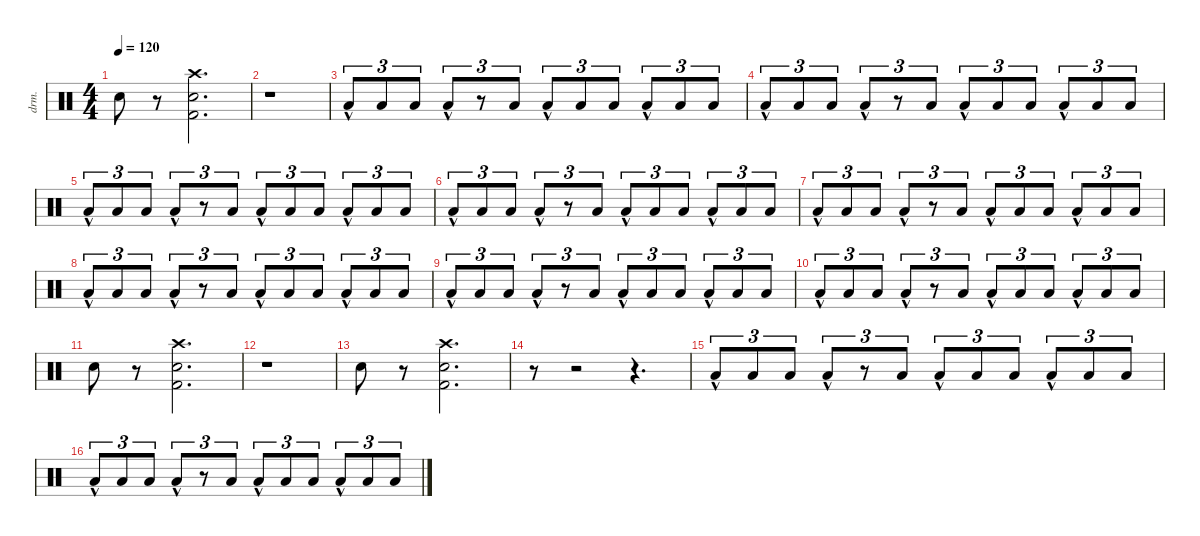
\defaultSystemsLayout 4
\hideDynamics
\bracketExtendMode nobrackets
\otherSystemsTrackNameOrientation horizontal
\track ("Percussion" "drm.") {instrument percussion}
\staff {score}
\articulation defaults
\ts (4 4)
\tempo 120
\clef neutral
\ks c "Snare (hit) 2".8{dy f beam Down}
r.8{beam Down} ("Crash high (hit)" "Snare (hit) 2" "Kick (hit) 2").2{d beam Down} |
r.1{beam Down} |
"Low Floor Tom (hit)"{hac}.8{tu (3 2) beam Up} "Low Floor Tom (hit)".8{tu (3 2) beam Up} "Low Floor Tom (hit)".8{tu (3 2) beam Up} "Low Floor Tom (hit)"{hac}.8{tu (3 2) beam Up} r.8{tu (3 2) beam Up} "Low Floor Tom (hit)".8{tu (3 2) beam Up} "Low Floor Tom (hit)"{hac}.8{tu (3 2) beam Up} "Low Floor Tom (hit)".8{tu (3 2) beam Up} "Low Floor Tom (hit)".8{tu (3 2) beam Up} "Low Floor Tom (hit)"{hac}.8{tu (3 2) beam Up} "Low Floor Tom (hit)".8{tu (3 2) beam Up} "Low Floor Tom (hit)".8{tu (3 2) beam Up} |
"Low Floor Tom (hit)"{hac}.8{tu (3 2) beam Up} "Low Floor Tom (hit)".8{tu (3 2) beam Up} "Low Floor Tom (hit)".8{tu (3 2) beam Up} "Low Floor Tom (hit)"{hac}.8{tu (3 2) beam Up} r.8{tu (3 2) beam Up} "Low Floor Tom (hit)".8{tu (3 2) beam Up} "Low Floor Tom (hit)"{hac}.8{tu (3 2) beam Up} "Low Floor Tom (hit)".8{tu (3 2) beam Up} "Low Floor Tom (hit)".8{tu (3 2) beam Up} "Low Floor Tom (hit)"{hac}.8{tu (3 2) beam Up} "Low Floor Tom (hit)".8{tu (3 2) beam Up} "Low Floor Tom (hit)".8{tu (3 2) beam Up} |
"Low Floor Tom (hit)"{hac}.8{tu (3 2) beam Up} "Low Floor Tom (hit)".8{tu (3 2) beam Up} "Low Floor Tom (hit)".8{tu (3 2) beam Up} "Low Floor Tom (hit)"{hac}.8{tu (3 2) beam Up} r.8{tu (3 2) beam Up} "Low Floor Tom (hit)".8{tu (3 2) beam Up} "Low Floor Tom (hit)"{hac}.8{tu (3 2) beam Up} "Low Floor Tom (hit)".8{tu (3 2) beam Up} "Low Floor Tom (hit)".8{tu (3 2) beam Up} "Low Floor Tom (hit)"{hac}.8{tu (3 2) beam Up} "Low Floor Tom (hit)".8{tu (3 2) beam Up} "Low Floor Tom (hit)".8{tu (3 2) beam Up} |
"Low Floor Tom (hit)"{hac}.8{tu (3 2) beam Up} "Low Floor Tom (hit)".8{tu (3 2) beam Up} "Low Floor Tom (hit)".8{tu (3 2) beam Up} "Low Floor Tom (hit)"{hac}.8{tu (3 2) beam Up} r.8{tu (3 2) beam Up} "Low Floor Tom (hit)".8{tu (3 2) beam Up} "Low Floor Tom (hit)"{hac}.8{tu (3 2) beam Up} "Low Floor Tom (hit)".8{tu (3 2) beam Up} "Low Floor Tom (hit)".8{tu (3 2) beam Up} "Low Floor Tom (hit)"{hac}.8{tu (3 2) beam Up} "Low Floor Tom (hit)".8{tu (3 2) beam Up} "Low Floor Tom (hit)".8{tu (3 2) beam Up} |
"Low Floor Tom (hit)"{hac}.8{tu (3 2) beam Up} "Low Floor Tom (hit)".8{tu (3 2) beam Up} "Low Floor Tom (hit)".8{tu (3 2) beam Up} "Low Floor Tom (hit)"{hac}.8{tu (3 2) beam Up} r.8{tu (3 2) beam Up} "Low Floor Tom (hit)".8{tu (3 2) beam Up} "Low Floor Tom (hit)"{hac}.8{tu (3 2) beam Up} "Low Floor Tom (hit)".8{tu (3 2) beam Up} "Low Floor Tom (hit)".8{tu (3 2) beam Up} "Low Floor Tom (hit)"{hac}.8{tu (3 2) beam Up} "Low Floor Tom (hit)".8{tu (3 2) beam Up} "Low Floor Tom (hit)".8{tu (3 2) beam Up} |
"Low Floor Tom (hit)"{hac}.8{tu (3 2) beam Up} "Low Floor Tom (hit)".8{tu (3 2) beam Up} "Low Floor Tom (hit)".8{tu (3 2) beam Up} "Low Floor Tom (hit)"{hac}.8{tu (3 2) beam Up} r.8{tu (3 2) beam Up} "Low Floor Tom (hit)".8{tu (3 2) beam Up} "Low Floor Tom (hit)"{hac}.8{tu (3 2) beam Up} "Low Floor Tom (hit)".8{tu (3 2) beam Up} "Low Floor Tom (hit)".8{tu (3 2) beam Up} "Low Floor Tom (hit)"{hac}.8{tu (3 2) beam Up} "Low Floor Tom (hit)".8{tu (3 2) beam Up} "Low Floor Tom (hit)".8{tu (3 2) beam Up} |
"Low Floor Tom (hit)"{hac}.8{tu (3 2) beam Up} "Low Floor Tom (hit)".8{tu (3 2) beam Up} "Low Floor Tom (hit)".8{tu (3 2) beam Up} "Low Floor Tom (hit)"{hac}.8{tu (3 2) beam Up} r.8{tu (3 2) beam Up} "Low Floor Tom (hit)".8{tu (3 2) beam Up} "Low Floor Tom (hit)"{hac}.8{tu (3 2) beam Up} "Low Floor Tom (hit)".8{tu (3 2) beam Up} "Low Floor Tom (hit)".8{tu (3 2) beam Up} "Low Floor Tom (hit)"{hac}.8{tu (3 2) beam Up} "Low Floor Tom (hit)".8{tu (3 2) beam Up} "Low Floor Tom (hit)".8{tu (3 2) beam Up} |
"Low Floor Tom (hit)"{hac}.8{tu (3 2) beam Up} "Low Floor Tom (hit)".8{tu (3 2) beam Up} "Low Floor Tom (hit)".8{tu (3 2) beam Up} "Low Floor Tom (hit)"{hac}.8{tu (3 2) beam Up} r.8{tu (3 2) beam Up} "Low Floor Tom (hit)".8{tu (3 2) beam Up} "Low Floor Tom (hit)"{hac}.8{tu (3 2) beam Up} "Low Floor Tom (hit)".8{tu (3 2) beam Up} "Low Floor Tom (hit)".8{tu (3 2) beam Up} "Low Floor Tom (hit)"{hac}.8{tu (3 2) beam Up} "Low Floor Tom (hit)".8{tu (3 2) beam Up} "Low Floor Tom (hit)".8{tu (3 2) beam Up} |
"Snare (hit) 2".8{beam Down} r.8{beam Down} ("Crash high (hit)" "Snare (hit) 2" "Kick (hit) 2").2{d beam Down} |
r.1{beam Down} |
"Snare (hit) 2".8{beam Down} r.8{beam Down} ("Crash high (hit)" "Snare (hit) 2" "Kick (hit) 2").2{d beam Down} |
r.8{beam Down} r.2{beam Down} r.4{d beam Down} |
"Low Floor Tom (hit)"{hac}.8{tu (3 2) beam Up} "Low Floor Tom (hit)".8{tu (3 2) beam Up} "Low Floor Tom (hit)".8{tu (3 2) beam Up} "Low Floor Tom (hit)"{hac}.8{tu (3 2) beam Up} r.8{tu (3 2) beam Up} "Low Floor Tom (hit)".8{tu (3 2) beam Up} "Low Floor Tom (hit)"{hac}.8{tu (3 2) beam Up} "Low Floor Tom (hit)".8{tu (3 2) beam Up} "Low Floor Tom (hit)".8{tu (3 2) beam Up} "Low Floor Tom (hit)"{hac}.8{tu (3 2) beam Up} "Low Floor Tom (hit)".8{tu (3 2) beam Up} "Low Floor Tom (hit)".8{tu (3 2) beam Up} |
"Low Floor Tom (hit)"{hac}.8{tu (3 2) beam Up} "Low Floor Tom (hit)".8{tu (3 2) beam Up} "Low Floor Tom (hit)".8{tu (3 2) beam Up} "Low Floor Tom (hit)"{hac}.8{tu (3 2) beam Up} r.8{tu (3 2) beam Up} "Low Floor Tom (hit)".8{tu (3 2) beam Up} "Low Floor Tom (hit)"{hac}.8{tu (3 2) beam Up} "Low Floor Tom (hit)".8{tu (3 2) beam Up} "Low Floor Tom (hit)".8{tu (3 2) beam Up} "Low Floor Tom (hit)"{hac}.8{tu (3 2) beam Up} "Low Floor Tom (hit)".8{tu (3 2) beam Up} "Low Floor Tom (hit)".8{tu (3 2) beam Up}
